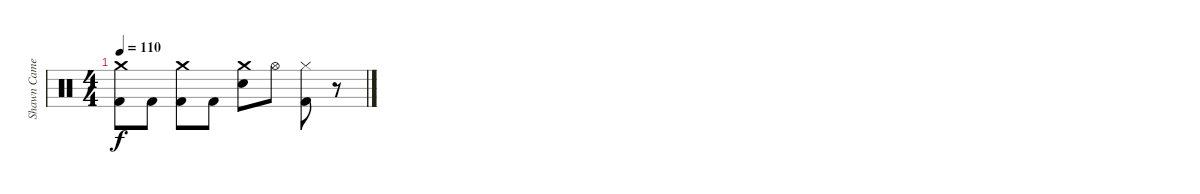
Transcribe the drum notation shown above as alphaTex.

\track ("Shawn Cameron" "Shawn Came") {instrument percussion}
\staff {score}
\articulation defaults
\ts (4 4)
\tempo 110
\clef neutral
\ks c
("Crash medium (hit)" "Kick (hit) 2").8{dy f} "Kick (hit) 2".8 ("Crash medium (hit)" "Kick (hit) 2").8 "Kick (hit) 2".8 ("Crash medium (hit)" "Electric Snare (hit)").8 "Hi-Hat (open)".8 ("Hi-Hat (closed)" "Kick (hit) 2").8 r.8
